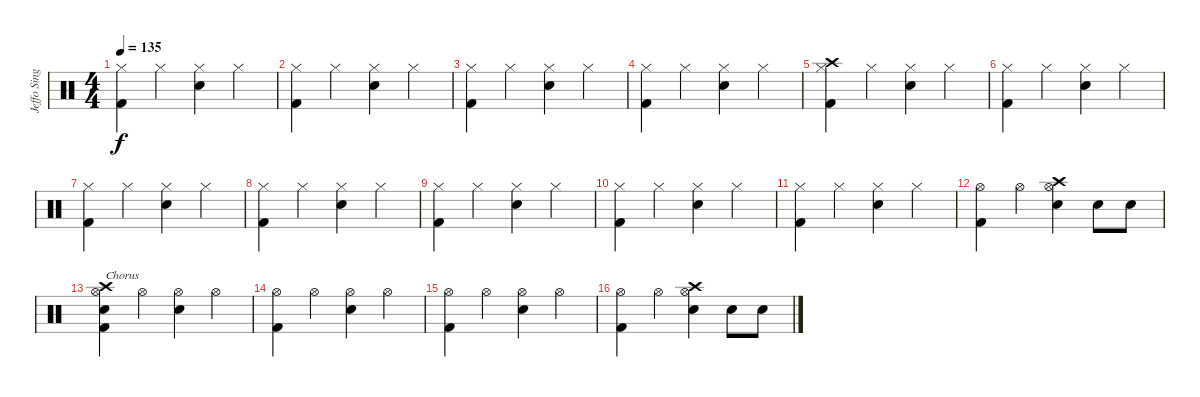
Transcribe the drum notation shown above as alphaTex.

\track ("Jeffo Singer" "Jeffo Sing") {instrument percussion}
\staff {score}
\articulation defaults
\ts (4 4)
\tempo 135
\clef neutral
\ks c
("Hi-Hat (closed)" "Kick (hit) 2").4{dy f} "Hi-Hat (closed)".4 ("Hi-Hat (closed)" "Snare (hit) 2").4 "Hi-Hat (closed)".4 |
("Hi-Hat (closed)" "Kick (hit) 2").4 "Hi-Hat (closed)".4 ("Hi-Hat (closed)" "Snare (hit) 2").4 "Hi-Hat (closed)".4 |
("Hi-Hat (closed)" "Kick (hit) 2").4 "Hi-Hat (closed)".4 ("Hi-Hat (closed)" "Snare (hit) 2").4 "Hi-Hat (closed)".4 |
("Hi-Hat (closed)" "Kick (hit) 2").4 "Hi-Hat (closed)".4 ("Hi-Hat (closed)" "Snare (hit) 2").4 "Hi-Hat (closed)".4 |
("Hi-Hat (closed)" "Kick (hit) 2" "Crash high (hit)").4 "Hi-Hat (closed)".4 ("Hi-Hat (closed)" "Snare (hit) 2").4 "Hi-Hat (closed)".4 |
("Hi-Hat (closed)" "Kick (hit) 2").4 "Hi-Hat (closed)".4 ("Hi-Hat (closed)" "Snare (hit) 2").4 "Hi-Hat (closed)".4 |
("Hi-Hat (closed)" "Kick (hit) 2").4 "Hi-Hat (closed)".4 ("Hi-Hat (closed)" "Snare (hit) 2").4 "Hi-Hat (closed)".4 |
("Hi-Hat (closed)" "Kick (hit) 2").4 "Hi-Hat (closed)".4 ("Hi-Hat (closed)" "Snare (hit) 2").4 "Hi-Hat (closed)".4 |
("Hi-Hat (closed)" "Kick (hit) 2").4 "Hi-Hat (closed)".4 ("Hi-Hat (closed)" "Snare (hit) 2").4 "Hi-Hat (closed)".4 |
("Hi-Hat (closed)" "Kick (hit) 2").4 "Hi-Hat (closed)".4 ("Hi-Hat (closed)" "Snare (hit) 2").4 "Hi-Hat (closed)".4 |
("Hi-Hat (closed)" "Kick (hit) 2").4 "Hi-Hat (closed)".4 ("Hi-Hat (closed)" "Snare (hit) 2").4 "Hi-Hat (closed)".4 |
("Hi-Hat (open)" "Kick (hit) 2").4 "Hi-Hat (open)".4 ("Hi-Hat (open)" "Snare (hit) 2" "Crash high (hit)").4 "Snare (hit) 2".8 "Snare (hit) 2".8 |
("Hi-Hat (open)" "Kick (hit) 2" "Snare (hit) 2" "Crash high (hit)").4{txt "Chorus"} "Hi-Hat (open)".4 ("Hi-Hat (open)" "Snare (hit) 2").4 "Hi-Hat (open)".4 |
("Hi-Hat (open)" "Kick (hit) 2").4 "Hi-Hat (open)".4 ("Hi-Hat (open)" "Snare (hit) 2").4 "Hi-Hat (open)".4 |
("Hi-Hat (open)" "Kick (hit) 2").4 "Hi-Hat (open)".4 ("Hi-Hat (open)" "Snare (hit) 2").4 "Hi-Hat (open)".4 |
("Hi-Hat (open)" "Kick (hit) 2").4 "Hi-Hat (open)".4 ("Hi-Hat (open)" "Snare (hit) 2" "Crash high (hit)").4 "Snare (hit) 2".8 "Snare (hit) 2".8
